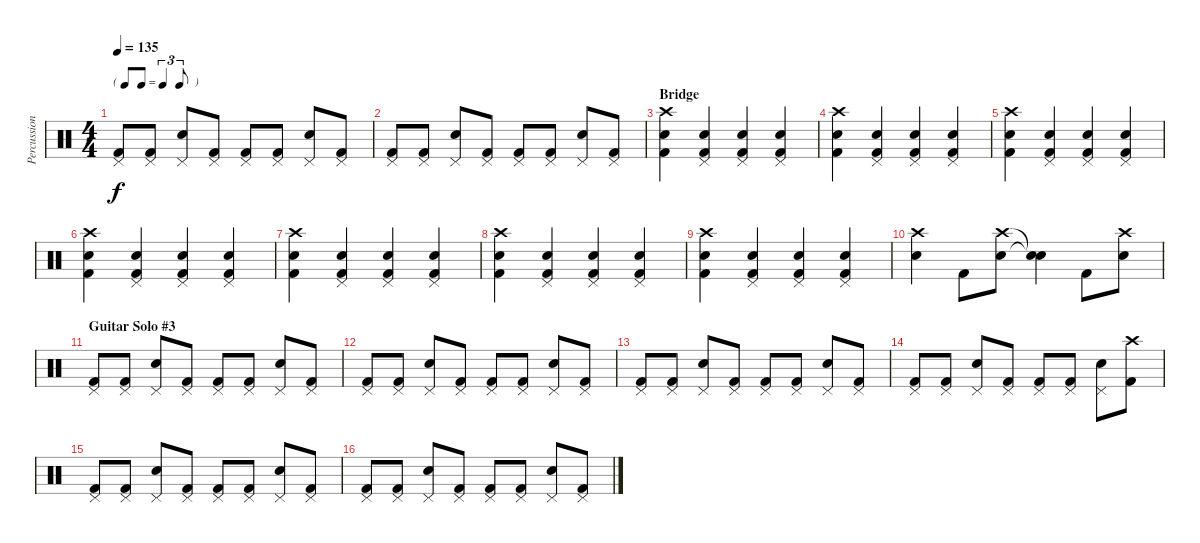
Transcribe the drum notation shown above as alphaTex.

\track ("Percussion" "Percussion") {instrument percussion}
\staff {score}
\articulation defaults
\ts (4 4)
\tf triplet8th
\tempo 135
\clef neutral
\ks c
("Pedal Hi-Hat (hit)" "Kick (hit) 2").8{dy f} ("Pedal Hi-Hat (hit)" "Kick (hit) 2").8 ("Pedal Hi-Hat (hit)" "Electric Snare (hit)").8 ("Pedal Hi-Hat (hit)" "Kick (hit) 2").8 ("Pedal Hi-Hat (hit)" "Kick (hit) 2").8 ("Pedal Hi-Hat (hit)" "Kick (hit) 2").8 ("Pedal Hi-Hat (hit)" "Electric Snare (hit)").8 ("Pedal Hi-Hat (hit)" "Kick (hit) 2").8 |
("Pedal Hi-Hat (hit)" "Kick (hit) 2").8 ("Pedal Hi-Hat (hit)" "Kick (hit) 2").8 ("Pedal Hi-Hat (hit)" "Electric Snare (hit)").8 ("Pedal Hi-Hat (hit)" "Kick (hit) 2").8 ("Pedal Hi-Hat (hit)" "Kick (hit) 2").8 ("Pedal Hi-Hat (hit)" "Kick (hit) 2").8 ("Pedal Hi-Hat (hit)" "Electric Snare (hit)").8 ("Pedal Hi-Hat (hit)" "Kick (hit) 2").8 |
\section ("" "Bridge")
("Crash high (hit)" "Electric Snare (hit)" "Kick (hit) 2").4 ("Pedal Hi-Hat (hit)" "Electric Snare (hit)" "Kick (hit) 2").4 ("Pedal Hi-Hat (hit)" "Electric Snare (hit)" "Kick (hit) 2").4 ("Pedal Hi-Hat (hit)" "Electric Snare (hit)" "Kick (hit) 2").4 |
("Crash high (hit)" "Electric Snare (hit)" "Kick (hit) 2").4 ("Pedal Hi-Hat (hit)" "Electric Snare (hit)" "Kick (hit) 2").4 ("Pedal Hi-Hat (hit)" "Electric Snare (hit)" "Kick (hit) 2").4 ("Pedal Hi-Hat (hit)" "Electric Snare (hit)" "Kick (hit) 2").4 |
("Crash high (hit)" "Electric Snare (hit)" "Kick (hit) 2").4 ("Pedal Hi-Hat (hit)" "Electric Snare (hit)" "Kick (hit) 2").4 ("Pedal Hi-Hat (hit)" "Electric Snare (hit)" "Kick (hit) 2").4 ("Pedal Hi-Hat (hit)" "Electric Snare (hit)" "Kick (hit) 2").4 |
("Crash high (hit)" "Electric Snare (hit)" "Kick (hit) 2").4 ("Pedal Hi-Hat (hit)" "Electric Snare (hit)" "Kick (hit) 2").4 ("Pedal Hi-Hat (hit)" "Electric Snare (hit)" "Kick (hit) 2").4 ("Pedal Hi-Hat (hit)" "Electric Snare (hit)" "Kick (hit) 2").4 |
("Crash high (hit)" "Electric Snare (hit)" "Kick (hit) 2").4 ("Pedal Hi-Hat (hit)" "Electric Snare (hit)" "Kick (hit) 2").4 ("Pedal Hi-Hat (hit)" "Electric Snare (hit)" "Kick (hit) 2").4 ("Pedal Hi-Hat (hit)" "Electric Snare (hit)" "Kick (hit) 2").4 |
("Crash high (hit)" "Electric Snare (hit)" "Kick (hit) 2").4 ("Pedal Hi-Hat (hit)" "Electric Snare (hit)" "Kick (hit) 2").4 ("Pedal Hi-Hat (hit)" "Electric Snare (hit)" "Kick (hit) 2").4 ("Pedal Hi-Hat (hit)" "Electric Snare (hit)" "Kick (hit) 2").4 |
("Crash high (hit)" "Electric Snare (hit)" "Kick (hit) 2").4 ("Pedal Hi-Hat (hit)" "Electric Snare (hit)" "Kick (hit) 2").4 ("Pedal Hi-Hat (hit)" "Electric Snare (hit)" "Kick (hit) 2").4 ("Pedal Hi-Hat (hit)" "Electric Snare (hit)" "Kick (hit) 2").4 |
("Crash high (hit)" "Electric Snare (hit)").4 "Kick (hit) 2".8 ("Crash high (hit)" "Electric Snare (hit)").8 ("Snare (hit)"{t} "Snare (hit)"{t}).4 "Kick (hit) 2".8 ("Crash high (hit)" "Electric Snare (hit)").8 |
\section ("" "Guitar Solo #3")
("Pedal Hi-Hat (hit)" "Kick (hit) 2").8 ("Pedal Hi-Hat (hit)" "Kick (hit) 2").8 ("Pedal Hi-Hat (hit)" "Electric Snare (hit)").8 ("Pedal Hi-Hat (hit)" "Kick (hit) 2").8 ("Pedal Hi-Hat (hit)" "Kick (hit) 2").8 ("Pedal Hi-Hat (hit)" "Kick (hit) 2").8 ("Pedal Hi-Hat (hit)" "Electric Snare (hit)").8 ("Pedal Hi-Hat (hit)" "Kick (hit) 2").8 |
("Pedal Hi-Hat (hit)" "Kick (hit) 2").8 ("Pedal Hi-Hat (hit)" "Kick (hit) 2").8 ("Pedal Hi-Hat (hit)" "Electric Snare (hit)").8 ("Pedal Hi-Hat (hit)" "Kick (hit) 2").8 ("Pedal Hi-Hat (hit)" "Kick (hit) 2").8 ("Pedal Hi-Hat (hit)" "Kick (hit) 2").8 ("Pedal Hi-Hat (hit)" "Electric Snare (hit)").8 ("Pedal Hi-Hat (hit)" "Kick (hit) 2").8 |
("Pedal Hi-Hat (hit)" "Kick (hit) 2").8 ("Pedal Hi-Hat (hit)" "Kick (hit) 2").8 ("Pedal Hi-Hat (hit)" "Electric Snare (hit)").8 ("Pedal Hi-Hat (hit)" "Kick (hit) 2").8 ("Pedal Hi-Hat (hit)" "Kick (hit) 2").8 ("Pedal Hi-Hat (hit)" "Kick (hit) 2").8 ("Pedal Hi-Hat (hit)" "Electric Snare (hit)").8 ("Pedal Hi-Hat (hit)" "Kick (hit) 2").8 |
("Pedal Hi-Hat (hit)" "Kick (hit) 2").8 ("Pedal Hi-Hat (hit)" "Kick (hit) 2").8 ("Pedal Hi-Hat (hit)" "Electric Snare (hit)").8 ("Pedal Hi-Hat (hit)" "Kick (hit) 2").8 ("Pedal Hi-Hat (hit)" "Kick (hit) 2").8 ("Pedal Hi-Hat (hit)" "Kick (hit) 2").8 ("Pedal Hi-Hat (hit)" "Electric Snare (hit)").8 ("Crash high (hit)" "Kick (hit) 2").8 |
("Pedal Hi-Hat (hit)" "Kick (hit) 2").8 ("Pedal Hi-Hat (hit)" "Kick (hit) 2").8 ("Pedal Hi-Hat (hit)" "Electric Snare (hit)").8 ("Pedal Hi-Hat (hit)" "Kick (hit) 2").8 ("Pedal Hi-Hat (hit)" "Kick (hit) 2").8 ("Pedal Hi-Hat (hit)" "Kick (hit) 2").8 ("Pedal Hi-Hat (hit)" "Electric Snare (hit)").8 ("Pedal Hi-Hat (hit)" "Kick (hit) 2").8 |
("Pedal Hi-Hat (hit)" "Kick (hit) 2").8 ("Pedal Hi-Hat (hit)" "Kick (hit) 2").8 ("Pedal Hi-Hat (hit)" "Electric Snare (hit)").8 ("Pedal Hi-Hat (hit)" "Kick (hit) 2").8 ("Pedal Hi-Hat (hit)" "Kick (hit) 2").8 ("Pedal Hi-Hat (hit)" "Kick (hit) 2").8 ("Pedal Hi-Hat (hit)" "Electric Snare (hit)").8 ("Pedal Hi-Hat (hit)" "Kick (hit) 2").8
